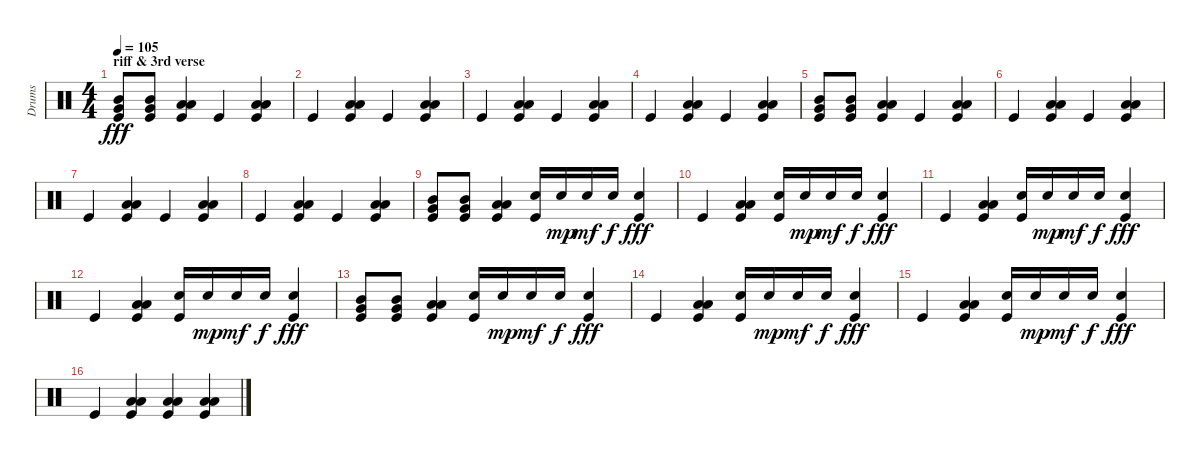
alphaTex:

\track ("Drums" "Drums") {instrument percussion}
\staff {score}
\articulation defaults
\ts (4 4)
\section ("" "riff & 3rd verse")
\tempo 105
\clef neutral
\ks c
("Mid Tom (hit)" "Very Low Tom (hit)" "Kick (hit)").8{dy fff} ("Mid Tom (hit)" "Very Low Tom (hit)" "Kick (hit)").8 ("Low Tom (hit)" "Low Floor Tom (hit)" "Kick (hit)").4 "Kick (hit)".4 ("Low Tom (hit)" "Low Floor Tom (hit)" "Kick (hit)").4 |
"Kick (hit)".4 ("Low Tom (hit)" "Low Floor Tom (hit)" "Kick (hit)").4 "Kick (hit)".4 ("Low Tom (hit)" "Low Floor Tom (hit)" "Kick (hit)").4 |
"Kick (hit)".4 ("Low Tom (hit)" "Low Floor Tom (hit)" "Kick (hit)").4 "Kick (hit)".4 ("Low Tom (hit)" "Low Floor Tom (hit)" "Kick (hit)").4 |
"Kick (hit)".4 ("Low Tom (hit)" "Low Floor Tom (hit)" "Kick (hit)").4 "Kick (hit)".4 ("Low Tom (hit)" "Low Floor Tom (hit)" "Kick (hit)").4 |
("Mid Tom (hit)" "Very Low Tom (hit)" "Kick (hit)").8 ("Mid Tom (hit)" "Very Low Tom (hit)" "Kick (hit)").8 ("Low Tom (hit)" "Low Floor Tom (hit)" "Kick (hit)").4 "Kick (hit)".4 ("Low Tom (hit)" "Low Floor Tom (hit)" "Kick (hit)").4 |
"Kick (hit)".4 ("Low Tom (hit)" "Low Floor Tom (hit)" "Kick (hit)").4 "Kick (hit)".4 ("Low Tom (hit)" "Low Floor Tom (hit)" "Kick (hit)").4 |
"Kick (hit)".4 ("Low Tom (hit)" "Low Floor Tom (hit)" "Kick (hit)").4 "Kick (hit)".4 ("Low Tom (hit)" "Low Floor Tom (hit)" "Kick (hit)").4 |
"Kick (hit)".4 ("Low Tom (hit)" "Low Floor Tom (hit)" "Kick (hit)").4 "Kick (hit)".4 ("Low Tom (hit)" "Low Floor Tom (hit)" "Kick (hit)").4 |
("Mid Tom (hit)" "Very Low Tom (hit)" "Kick (hit)").8 ("Mid Tom (hit)" "Very Low Tom (hit)" "Kick (hit)").8 ("Low Tom (hit)" "Low Floor Tom (hit)" "Kick (hit)").4 ("Electric Snare (hit)" "Kick (hit)").16 "Electric Snare (hit)".16{dy mp} "Electric Snare (hit)".16{dy mf} "Electric Snare (hit)".16{dy f} ("Electric Snare (hit)" "Kick (hit)").4{dy fff} |
"Kick (hit)".4 ("Low Tom (hit)" "Low Floor Tom (hit)" "Kick (hit)").4 ("Electric Snare (hit)" "Kick (hit)").16 "Electric Snare (hit)".16{dy mp} "Electric Snare (hit)".16{dy mf} "Electric Snare (hit)".16{dy f} ("Electric Snare (hit)" "Kick (hit)").4{dy fff} |
"Kick (hit)".4 ("Low Tom (hit)" "Low Floor Tom (hit)" "Kick (hit)").4 ("Electric Snare (hit)" "Kick (hit)").16 "Electric Snare (hit)".16{dy mp} "Electric Snare (hit)".16{dy mf} "Electric Snare (hit)".16{dy f} ("Electric Snare (hit)" "Kick (hit)").4{dy fff} |
"Kick (hit)".4 ("Low Tom (hit)" "Low Floor Tom (hit)" "Kick (hit)").4 ("Electric Snare (hit)" "Kick (hit)").16 "Electric Snare (hit)".16{dy mp} "Electric Snare (hit)".16{dy mf} "Electric Snare (hit)".16{dy f} ("Electric Snare (hit)" "Kick (hit)").4{dy fff} |
("Mid Tom (hit)" "Very Low Tom (hit)" "Kick (hit)").8 ("Mid Tom (hit)" "Very Low Tom (hit)" "Kick (hit)").8 ("Low Tom (hit)" "Low Floor Tom (hit)" "Kick (hit)").4 ("Electric Snare (hit)" "Kick (hit)").16 "Electric Snare (hit)".16{dy mp} "Electric Snare (hit)".16{dy mf} "Electric Snare (hit)".16{dy f} ("Electric Snare (hit)" "Kick (hit)").4{dy fff} |
"Kick (hit)".4 ("Low Tom (hit)" "Low Floor Tom (hit)" "Kick (hit)").4 ("Electric Snare (hit)" "Kick (hit)").16 "Electric Snare (hit)".16{dy mp} "Electric Snare (hit)".16{dy mf} "Electric Snare (hit)".16{dy f} ("Electric Snare (hit)" "Kick (hit)").4{dy fff} |
"Kick (hit)".4 ("Low Tom (hit)" "Low Floor Tom (hit)" "Kick (hit)").4 ("Electric Snare (hit)" "Kick (hit)").16 "Electric Snare (hit)".16{dy mp} "Electric Snare (hit)".16{dy mf} "Electric Snare (hit)".16{dy f} ("Electric Snare (hit)" "Kick (hit)").4{dy fff} |
"Kick (hit)".4 ("Low Tom (hit)" "Low Floor Tom (hit)" "Kick (hit)").4 ("Low Tom (hit)" "Low Floor Tom (hit)" "Kick (hit)").4 ("Low Tom (hit)" "Low Floor Tom (hit)" "Kick (hit)").4
